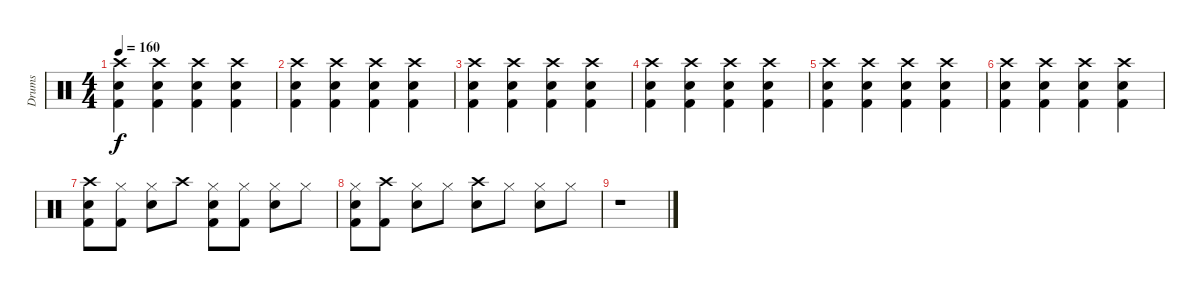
\track ("Drums" "Drums") {instrument percussion}
\staff {score}
\articulation defaults
\ts (4 4)
\tempo 160
\clef neutral
\ks c
("Crash high (hit)" "Electric Snare (hit)" "Kick (hit) 2").4{dy f} ("Crash high (hit)" "Electric Snare (hit)" "Kick (hit) 2").4 ("Crash high (hit)" "Electric Snare (hit)" "Kick (hit) 2").4 ("Crash high (hit)" "Electric Snare (hit)" "Kick (hit) 2").4 |
("Crash high (hit)" "Electric Snare (hit)" "Kick (hit) 2").4 ("Crash high (hit)" "Electric Snare (hit)" "Kick (hit) 2").4 ("Crash high (hit)" "Electric Snare (hit)" "Kick (hit) 2").4 ("Crash high (hit)" "Electric Snare (hit)" "Kick (hit) 2").4 |
("Crash high (hit)" "Electric Snare (hit)" "Kick (hit) 2").4 ("Crash high (hit)" "Electric Snare (hit)" "Kick (hit) 2").4 ("Crash high (hit)" "Electric Snare (hit)" "Kick (hit) 2").4 ("Crash high (hit)" "Electric Snare (hit)" "Kick (hit) 2").4 |
("Crash high (hit)" "Electric Snare (hit)" "Kick (hit) 2").4 ("Crash high (hit)" "Electric Snare (hit)" "Kick (hit) 2").4 ("Crash high (hit)" "Electric Snare (hit)" "Kick (hit) 2").4 ("Crash high (hit)" "Electric Snare (hit)" "Kick (hit) 2").4 |
("Crash high (hit)" "Electric Snare (hit)" "Kick (hit) 2").4 ("Crash high (hit)" "Electric Snare (hit)" "Kick (hit) 2").4 ("Crash high (hit)" "Electric Snare (hit)" "Kick (hit) 2").4 ("Crash high (hit)" "Electric Snare (hit)" "Kick (hit) 2").4 |
("Crash high (hit)" "Electric Snare (hit)" "Kick (hit) 2").4 ("Crash high (hit)" "Electric Snare (hit)" "Kick (hit) 2").4 ("Crash high (hit)" "Electric Snare (hit)" "Kick (hit) 2").4 ("Crash high (hit)" "Electric Snare (hit)" "Kick (hit) 2").4 |
("Crash high (hit)" "Electric Snare (hit)" "Kick (hit) 2").8 ("Hi-Hat (closed)" "Kick (hit) 2").8 ("Hi-Hat (closed)" "Electric Snare (hit)").8 "Crash high (hit)".8 ("Hi-Hat (closed)" "Electric Snare (hit)" "Kick (hit) 2").8 ("Hi-Hat (closed)" "Kick (hit) 2").8 ("Hi-Hat (closed)" "Electric Snare (hit)").8 "Hi-Hat (closed)".8 |
("Hi-Hat (closed)" "Electric Snare (hit)" "Kick (hit) 2").8 ("Crash high (hit)" "Kick (hit) 2").8 ("Hi-Hat (closed)" "Electric Snare (hit)").8 "Hi-Hat (closed)".8 ("Crash high (hit)" "Electric Snare (hit)").8 "Hi-Hat (closed)".8 ("Hi-Hat (closed)" "Electric Snare (hit)").8 "Hi-Hat (closed)".8 |
r.1
